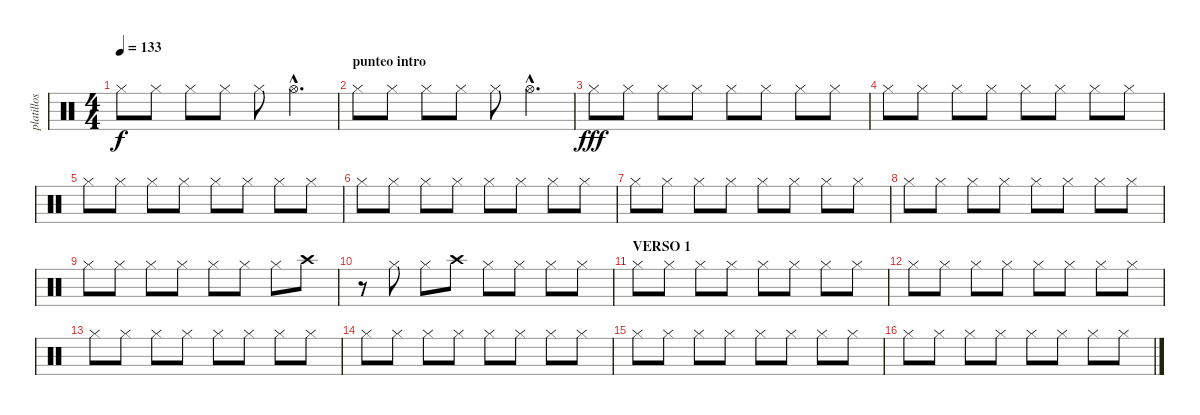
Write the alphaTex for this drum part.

\track ("platillos" "platillos") {instrument percussion}
\staff {score}
\articulation defaults
\ts (4 4)
\tempo 133
\clef neutral
\ks c "Hi-Hat (closed)".8{dy f} "Hi-Hat (closed)".8 "Hi-Hat (closed)".8 "Hi-Hat (closed)".8 "Hi-Hat (closed)".8 "Hi-Hat (open)"{hac}.4{d}
|
\section ("" "punteo intro")
"Hi-Hat (closed)".8 "Hi-Hat (closed)".8 "Hi-Hat (closed)".8 "Hi-Hat (closed)".8 "Hi-Hat (closed)".8 "Hi-Hat (open)"{hac}.4{d} |
"Hi-Hat (closed)".8{dy fff} "Hi-Hat (closed)".8 "Hi-Hat (closed)".8 "Hi-Hat (closed)".8 "Hi-Hat (closed)".8 "Hi-Hat (closed)".8 "Hi-Hat (closed)".8 "Hi-Hat (closed)".8 |
"Hi-Hat (closed)".8 "Hi-Hat (closed)".8 "Hi-Hat (closed)".8 "Hi-Hat (closed)".8 "Hi-Hat (closed)".8 "Hi-Hat (closed)".8 "Hi-Hat (closed)".8 "Hi-Hat (closed)".8 |
"Hi-Hat (closed)".8 "Hi-Hat (closed)".8 "Hi-Hat (closed)".8 "Hi-Hat (closed)".8 "Hi-Hat (closed)".8 "Hi-Hat (closed)".8 "Hi-Hat (closed)".8 "Hi-Hat (closed)".8 |
"Hi-Hat (closed)".8 "Hi-Hat (closed)".8 "Hi-Hat (closed)".8 "Hi-Hat (closed)".8 "Hi-Hat (closed)".8 "Hi-Hat (closed)".8 "Hi-Hat (closed)".8 "Hi-Hat (closed)".8 |
"Hi-Hat (closed)".8 "Hi-Hat (closed)".8 "Hi-Hat (closed)".8 "Hi-Hat (closed)".8 "Hi-Hat (closed)".8 "Hi-Hat (closed)".8 "Hi-Hat (closed)".8 "Hi-Hat (closed)".8 |
"Hi-Hat (closed)".8 "Hi-Hat (closed)".8 "Hi-Hat (closed)".8 "Hi-Hat (closed)".8 "Hi-Hat (closed)".8 "Hi-Hat (closed)".8 "Hi-Hat (closed)".8 "Hi-Hat (closed)".8 |
"Hi-Hat (closed)".8 "Hi-Hat (closed)".8 "Hi-Hat (closed)".8 "Hi-Hat (closed)".8 "Hi-Hat (closed)".8 "Hi-Hat (closed)".8 "Hi-Hat (closed)".8 "Crash high (hit)".8 |
r.8 "Hi-Hat (closed)".8 "Hi-Hat (closed)".8 "Crash high (hit)".8 "Hi-Hat (closed)".8 "Hi-Hat (closed)".8 "Hi-Hat (closed)".8 "Hi-Hat (closed)".8 |
\section ("" "VERSO 1")
"Hi-Hat (closed)".8 "Hi-Hat (closed)".8 "Hi-Hat (closed)".8 "Hi-Hat (closed)".8 "Hi-Hat (closed)".8 "Hi-Hat (closed)".8 "Hi-Hat (closed)".8 "Hi-Hat (closed)".8 |
"Hi-Hat (closed)".8 "Hi-Hat (closed)".8 "Hi-Hat (closed)".8 "Hi-Hat (closed)".8 "Hi-Hat (closed)".8 "Hi-Hat (closed)".8 "Hi-Hat (closed)".8 "Hi-Hat (closed)".8 |
"Hi-Hat (closed)".8 "Hi-Hat (closed)".8 "Hi-Hat (closed)".8 "Hi-Hat (closed)".8 "Hi-Hat (closed)".8 "Hi-Hat (closed)".8 "Hi-Hat (closed)".8 "Hi-Hat (closed)".8 |
"Hi-Hat (closed)".8 "Hi-Hat (closed)".8 "Hi-Hat (closed)".8 "Hi-Hat (closed)".8 "Hi-Hat (closed)".8 "Hi-Hat (closed)".8 "Hi-Hat (closed)".8 "Hi-Hat (closed)".8 |
"Hi-Hat (closed)".8 "Hi-Hat (closed)".8 "Hi-Hat (closed)".8 "Hi-Hat (closed)".8 "Hi-Hat (closed)".8 "Hi-Hat (closed)".8 "Hi-Hat (closed)".8 "Hi-Hat (closed)".8 |
"Hi-Hat (closed)".8 "Hi-Hat (closed)".8 "Hi-Hat (closed)".8 "Hi-Hat (closed)".8 "Hi-Hat (closed)".8 "Hi-Hat (closed)".8 "Hi-Hat (closed)".8 "Hi-Hat (closed)".8
